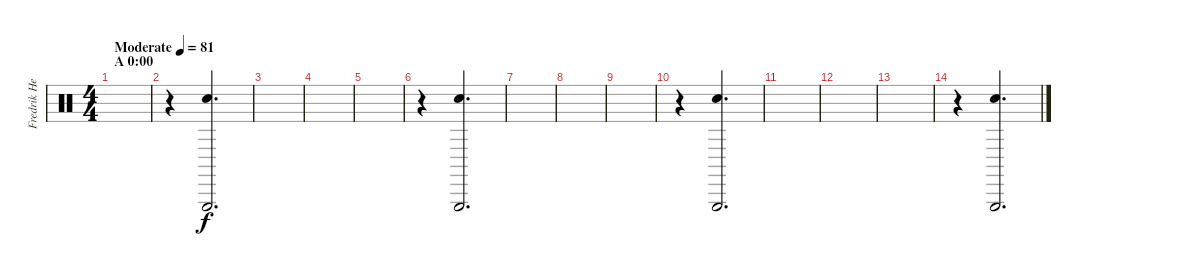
\track ("Fredrik Hellerström (Drums)" "Fredrik He") {instrument percussion}
\staff {score}
\articulation defaults
\ts (4 4)
\section ("" "A 0:00")
\tempo (81 "Moderate")
\clef neutral
\ks c
|
r.4 ("Triangle (hit)" "Metronome (bell)").2{d} |
|
|
|
r.4 ("Triangle (hit)" "Metronome (bell)").2{d} |
|
|
|
r.4 ("Triangle (hit)" "Metronome (bell)").2{d} |
|
|
|
r.4 ("Triangle (hit)" "Metronome (bell)").2{d}
